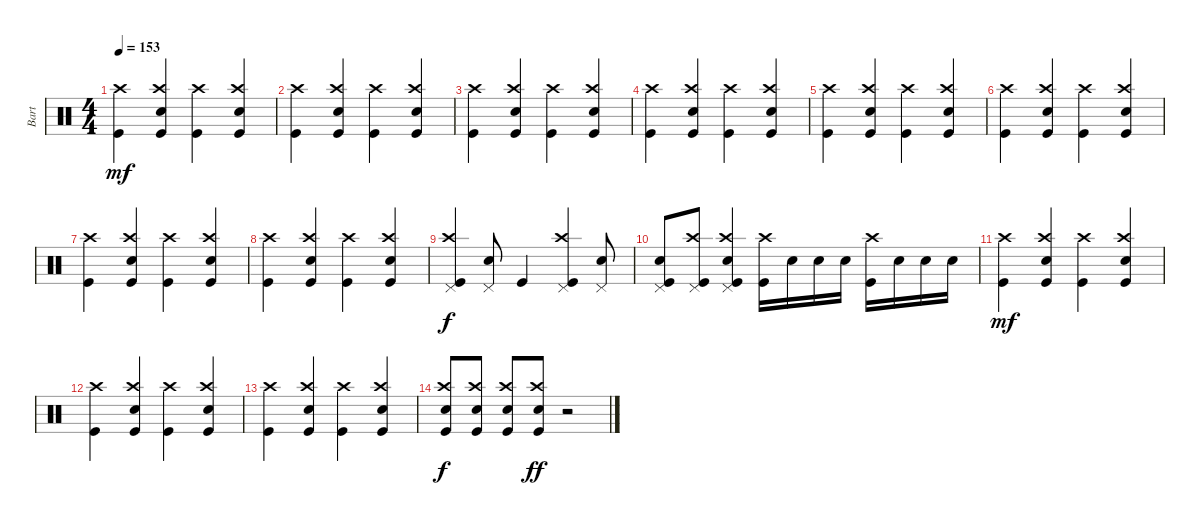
\track ("Bart" "Bart") {instrument percussion}
\staff {score}
\articulation defaults
\ts (4 4)
\tempo 153
\clef neutral
\ks c
("Kick (hit)" "Crash high (hit)").4{dy mf} ("Kick (hit)" "Electric Snare (hit)" "Crash high (hit)").4 ("Kick (hit)" "Crash high (hit)").4 ("Kick (hit)" "Electric Snare (hit)" "Crash high (hit)").4 |
("Kick (hit)" "Crash high (hit)").4 ("Kick (hit)" "Electric Snare (hit)" "Crash high (hit)").4 ("Kick (hit)" "Crash high (hit)").4 ("Kick (hit)" "Electric Snare (hit)" "Crash high (hit)").4 |
("Kick (hit)" "Crash high (hit)").4 ("Kick (hit)" "Electric Snare (hit)" "Crash high (hit)").4 ("Kick (hit)" "Crash high (hit)").4 ("Kick (hit)" "Electric Snare (hit)" "Crash high (hit)").4 |
("Kick (hit)" "Crash high (hit)").4 ("Kick (hit)" "Electric Snare (hit)" "Crash high (hit)").4 ("Kick (hit)" "Crash high (hit)").4 ("Kick (hit)" "Electric Snare (hit)" "Crash high (hit)").4 |
("Kick (hit)" "Crash high (hit)").4 ("Kick (hit)" "Electric Snare (hit)" "Crash high (hit)").4 ("Kick (hit)" "Crash high (hit)").4 ("Kick (hit)" "Electric Snare (hit)" "Crash high (hit)").4 |
("Kick (hit)" "Crash high (hit)").4 ("Kick (hit)" "Electric Snare (hit)" "Crash high (hit)").4 ("Kick (hit)" "Crash high (hit)").4 ("Kick (hit)" "Electric Snare (hit)" "Crash high (hit)").4 |
("Kick (hit)" "Crash high (hit)").4 ("Kick (hit)" "Electric Snare (hit)" "Crash high (hit)").4 ("Kick (hit)" "Crash high (hit)").4 ("Kick (hit)" "Electric Snare (hit)" "Crash high (hit)").4 |
("Kick (hit)" "Crash high (hit)").4 ("Kick (hit)" "Electric Snare (hit)" "Crash high (hit)").4 ("Kick (hit)" "Crash high (hit)").4 ("Kick (hit)" "Electric Snare (hit)" "Crash high (hit)").4 |
("Kick (hit)" "Pedal Hi-Hat (hit)" "Crash high (hit)").4{dy f} ("Electric Snare (hit)" "Pedal Hi-Hat (hit)").8 "Kick (hit)".4 ("Kick (hit)" "Pedal Hi-Hat (hit)" "Crash high (hit)").4 ("Electric Snare (hit)" "Pedal Hi-Hat (hit)").8 |
("Kick (hit)" "Electric Snare (hit)" "Pedal Hi-Hat (hit)").8 ("Kick (hit)" "Pedal Hi-Hat (hit)" "Crash high (hit)").8 ("Kick (hit)" "Electric Snare (hit)" "Pedal Hi-Hat (hit)" "Crash high (hit)").4 ("Kick (hit)" "Crash high (hit)").16 "Electric Snare (hit)".16 "Electric Snare (hit)".16 "Electric Snare (hit)".16 ("Kick (hit)" "Crash high (hit)").16 "Electric Snare (hit)".16 "Electric Snare (hit)".16 "Electric Snare (hit)".16 |
("Kick (hit)" "Crash high (hit)").4{dy mf} ("Kick (hit)" "Electric Snare (hit)" "Crash high (hit)").4 ("Kick (hit)" "Crash high (hit)").4 ("Kick (hit)" "Electric Snare (hit)" "Crash high (hit)").4 |
("Kick (hit)" "Crash high (hit)").4 ("Kick (hit)" "Electric Snare (hit)" "Crash high (hit)").4 ("Kick (hit)" "Crash high (hit)").4 ("Kick (hit)" "Electric Snare (hit)" "Crash high (hit)").4 |
("Kick (hit)" "Crash high (hit)").4 ("Kick (hit)" "Electric Snare (hit)" "Crash high (hit)").4 ("Kick (hit)" "Crash high (hit)").4 ("Kick (hit)" "Electric Snare (hit)" "Crash high (hit)").4 |
("Kick (hit)" "Electric Snare (hit)" "Crash high (hit)").8{dy f} ("Kick (hit)" "Electric Snare (hit)" "Crash high (hit)").8 ("Kick (hit)" "Electric Snare (hit)" "Crash high (hit)").8 ("Kick (hit)" "Electric Snare (hit)" "Crash high (hit)").8{dy ff} r.2
